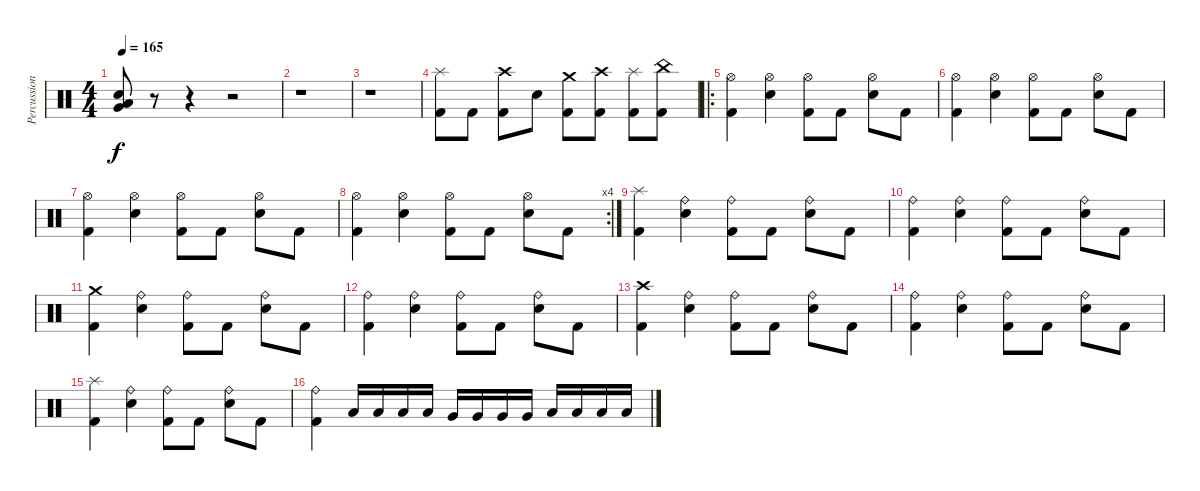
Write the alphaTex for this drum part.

\track ("Percussions" "Percussion") {instrument percussion}
\staff {score}
\articulation defaults
\ts (4 4)
\tempo 165
\clef neutral
\ks c
("Snare (hit) 2" "Low Floor Tom (hit)" "Very Low Tom (hit)").8{dy f} r.8 r.4 r.2 |
r.1 |
r.1 |
("Kick (hit) 2" "Splash (hit)").8 "Kick (hit) 2".8 ("Kick (hit) 2" "Crash high (hit)").8 "Snare (hit) 2".8 ("Kick (hit) 2" "Crash medium (hit)").8 ("Kick (hit) 2" "Crash high (hit)").8 ("Kick (hit) 2" "Splash (hit)").8 ("Kick (hit) 2" "China (hit)").8 |
\ro
("Kick (hit) 2" "Hi-Hat (open)").4 ("Snare (hit) 2" "Hi-Hat (open)").4 ("Kick (hit) 2" "Hi-Hat (open)").8 "Kick (hit) 2".8 ("Snare (hit) 2" "Hi-Hat (open)").8 "Kick (hit) 2".8 |
("Kick (hit) 2" "Hi-Hat (open)").4 ("Snare (hit) 2" "Hi-Hat (open)").4 ("Kick (hit) 2" "Hi-Hat (open)").8 "Kick (hit) 2".8 ("Snare (hit) 2" "Hi-Hat (open)").8 "Kick (hit) 2".8 |
("Kick (hit) 2" "Hi-Hat (open)").4 ("Snare (hit) 2" "Hi-Hat (open)").4 ("Kick (hit) 2" "Hi-Hat (open)").8 "Kick (hit) 2".8 ("Snare (hit) 2" "Hi-Hat (open)").8 "Kick (hit) 2".8 |
\rc 4
("Kick (hit) 2" "Hi-Hat (open)").4 ("Snare (hit) 2" "Hi-Hat (open)").4 ("Kick (hit) 2" "Hi-Hat (open)").8 "Kick (hit) 2".8 ("Snare (hit) 2" "Hi-Hat (open)").8 "Kick (hit) 2".8 |
("Kick (hit) 2" "Splash (hit)").4 ("Snare (hit) 2" "Ride (bell)").4 ("Kick (hit) 2" "Ride (bell)").8 "Kick (hit) 2".8 ("Snare (hit) 2" "Ride (bell)").8 "Kick (hit) 2".8 |
("Kick (hit) 2" "Ride (bell)").4 ("Snare (hit) 2" "Ride (bell)").4 ("Kick (hit) 2" "Ride (bell)").8 "Kick (hit) 2".8 ("Snare (hit) 2" "Ride (bell)").8 "Kick (hit) 2".8 |
("Kick (hit) 2" "Crash medium (hit)").4 ("Snare (hit) 2" "Ride (bell)").4 ("Kick (hit) 2" "Ride (bell)").8 "Kick (hit) 2".8 ("Snare (hit) 2" "Ride (bell)").8 "Kick (hit) 2".8 |
("Kick (hit) 2" "Ride (bell)").4 ("Snare (hit) 2" "Ride (bell)").4 ("Kick (hit) 2" "Ride (bell)").8 "Kick (hit) 2".8 ("Snare (hit) 2" "Ride (bell)").8 "Kick (hit) 2".8 |
("Kick (hit) 2" "Crash high (hit)").4 ("Snare (hit) 2" "Ride (bell)").4 ("Kick (hit) 2" "Ride (bell)").8 "Kick (hit) 2".8 ("Snare (hit) 2" "Ride (bell)").8 "Kick (hit) 2".8 |
("Kick (hit) 2" "Ride (bell)").4 ("Snare (hit) 2" "Ride (bell)").4 ("Kick (hit) 2" "Ride (bell)").8 "Kick (hit) 2".8 ("Snare (hit) 2" "Ride (bell)").8 "Kick (hit) 2".8 |
("Kick (hit) 2" "Splash (hit)").4 ("Snare (hit) 2" "Ride (bell)").4 ("Kick (hit) 2" "Ride (bell)").8 "Kick (hit) 2".8 ("Snare (hit) 2" "Ride (bell)").8 "Kick (hit) 2".8 |
("Kick (hit) 2" "Ride (bell)").4 "Low Tom (hit)".16 "Low Tom (hit)".16 "Low Tom (hit)".16 "Low Tom (hit)".16 "Very Low Tom (hit)".16 "Very Low Tom (hit)".16 "Very Low Tom (hit)".16 "Very Low Tom (hit)".16 "Low Floor Tom (hit)".16 "Low Floor Tom (hit)".16 "Low Floor Tom (hit)".16 "Low Floor Tom (hit)".16
